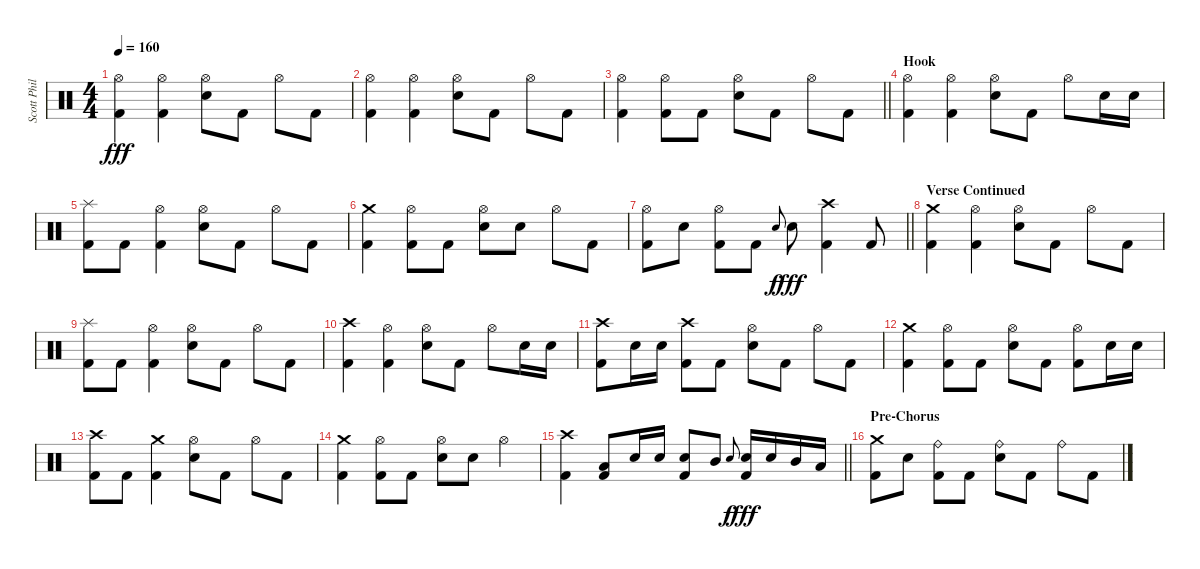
\track ("Scott Phillips [Drums]" "Scott Phil") {instrument percussion}
\staff {score}
\articulation defaults
\ts (4 4)
\tempo 160
\clef neutral
\ks c
("Hi-Hat (open)" "Kick (hit) 2").4{dy fff} ("Hi-Hat (open)" "Kick (hit) 2").4 ("Hi-Hat (open)" "Electric Snare (hit)").8 "Kick (hit) 2".8 "Hi-Hat (open)".8 "Kick (hit) 2".8 |
("Hi-Hat (open)" "Kick (hit) 2").4 ("Hi-Hat (open)" "Kick (hit) 2").4 ("Hi-Hat (open)" "Electric Snare (hit)").8 "Kick (hit) 2".8 "Hi-Hat (open)".8 "Kick (hit) 2".8 |
\barLineRight lightlight
("Hi-Hat (open)" "Kick (hit) 2").4 ("Hi-Hat (open)" "Kick (hit) 2").8 "Kick (hit) 2".8 ("Hi-Hat (open)" "Electric Snare (hit)").8 "Kick (hit) 2".8 "Hi-Hat (open)".8 "Kick (hit) 2".8 |
\section ("" "Hook")
("Hi-Hat (open)" "Kick (hit) 2").4 ("Hi-Hat (open)" "Kick (hit) 2").4 ("Hi-Hat (open)" "Electric Snare (hit)").8 "Kick (hit) 2".8 "Hi-Hat (open)".8 "Electric Snare (hit)".16 "Electric Snare (hit)".16 |
("Splash (hit)" "Kick (hit) 2").8 "Kick (hit) 2".8 ("Hi-Hat (open)" "Kick (hit) 2").4 ("Hi-Hat (open)" "Electric Snare (hit)").8 "Kick (hit) 2".8 "Hi-Hat (open)".8 "Kick (hit) 2".8 |
("Crash medium (hit)" "Kick (hit) 2").4 ("Hi-Hat (open)" "Kick (hit) 2").8 "Kick (hit) 2".8 ("Hi-Hat (open)" "Electric Snare (hit)").8 "Electric Snare (hit)".8 "Hi-Hat (open)".8 "Kick (hit) 2".8 |
\barLineRight lightlight
("Hi-Hat (open)" "Kick (hit) 2").8 "Electric Snare (hit)".8 ("Hi-Hat (open)" "Kick (hit) 2").8 "Kick (hit) 2".8 "Electric Snare (hit)".8{gr onbeat dy f} "Electric Snare (hit)".8{dy fff} ("Crash high (hit)" "Kick (hit) 2").4 "Kick (hit) 2".8 |
\section ("" "Verse Continued")
("Crash medium (hit)" "Kick (hit) 2").4 ("Hi-Hat (open)" "Kick (hit) 2").4 ("Hi-Hat (open)" "Electric Snare (hit)").8 "Kick (hit) 2".8 "Hi-Hat (open)".8 "Kick (hit) 2".8 |
("Splash (hit)" "Kick (hit) 2").8 "Kick (hit) 2".8 ("Hi-Hat (open)" "Kick (hit) 2").4 ("Hi-Hat (open)" "Electric Snare (hit)").8 "Kick (hit) 2".8 "Hi-Hat (open)".8 "Kick (hit) 2".8 |
("Crash high (hit)" "Kick (hit) 2").4 ("Hi-Hat (open)" "Kick (hit) 2").4 ("Hi-Hat (open)" "Electric Snare (hit)").8 "Kick (hit) 2".8 "Hi-Hat (open)".8 "Electric Snare (hit)".16 "Electric Snare (hit)".16 |
("Crash high (hit)" "Kick (hit) 2").8 "Electric Snare (hit)".16 "Electric Snare (hit)".16 ("Crash high (hit)" "Kick (hit) 2").8 "Kick (hit) 2".8 ("Hi-Hat (open)" "Electric Snare (hit)").8 "Kick (hit) 2".8 "Hi-Hat (open)".8 "Kick (hit) 2".8 |
("Crash medium (hit)" "Kick (hit) 2").4 ("Hi-Hat (open)" "Kick (hit) 2").8 "Kick (hit) 2".8 ("Hi-Hat (open)" "Electric Snare (hit)").8 "Kick (hit) 2".8 ("Hi-Hat (open)" "Kick (hit) 2").8 "Electric Snare (hit)".16 "Electric Snare (hit)".16 |
("Crash high (hit)" "Kick (hit) 2").8 "Kick (hit) 2".8 ("Crash medium (hit)" "Kick (hit) 2").4 ("Hi-Hat (open)" "Electric Snare (hit)").8 "Kick (hit) 2".8 "Hi-Hat (open)".8 "Kick (hit) 2".8 |
("Crash medium (hit)" "Kick (hit) 2").4 ("Hi-Hat (open)" "Kick (hit) 2").8 "Kick (hit) 2".8 ("Hi-Hat (open)" "Electric Snare (hit)").8 "Electric Snare (hit)".8 "Hi-Hat (open)".4 |
\barLineRight lightlight
("Crash high (hit)" "Kick (hit) 2").4 ("Low Floor Tom (hit)" "Kick (hit) 2").8 "Electric Snare (hit)".16 "Electric Snare (hit)".16 ("Electric Snare (hit)" "Kick (hit) 2").8 "Mid Tom (hit)".8 "Electric Snare (hit)".8{gr onbeat dy f} ("Electric Snare (hit)" "Kick (hit) 2").16{dy fff} "Electric Snare (hit)".16 "Mid Tom (hit)".16 "Low Tom (hit)".16 |
\section ("" "Pre-Chorus")
("Crash medium (hit)" "Kick (hit) 2").8 "Electric Snare (hit)".8 ("Ride (bell)" "Kick (hit) 2").8 "Kick (hit) 2".8 ("Ride (bell)" "Electric Snare (hit)").8 "Kick (hit) 2".8 "Ride (bell)".8 "Kick (hit) 2".8
